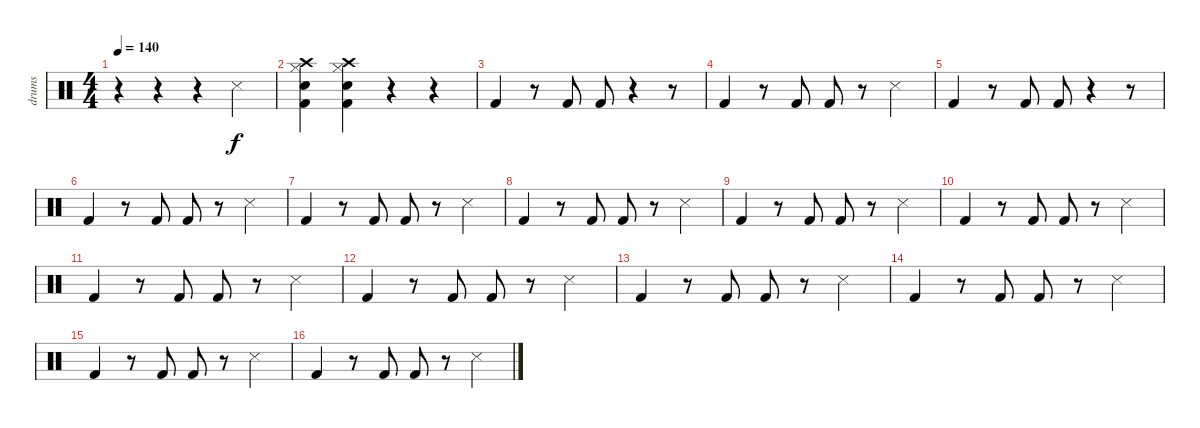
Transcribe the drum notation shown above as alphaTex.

\track ("drums" "drums") {instrument percussion}
\staff {score}
\articulation defaults
\ts (4 4)
\tempo 140
\clef neutral
\ks c
r.4{dy f} r.4 r.4 "Snare (side stick) 3".4 |
("Crash high (hit)" "Hi-Hat (closed)" "Snare (hit) 2" "Kick (hit) 2").4 ("Crash high (hit)" "Hi-Hat (closed)" "Snare (hit) 2" "Kick (hit) 2").4 r.4 r.4 |
"Kick (hit) 2".4 r.8 "Kick (hit) 2".8 "Kick (hit) 2".8 r.4 r.8 |
"Kick (hit) 2".4 r.8 "Kick (hit) 2".8 "Kick (hit) 2".8 r.8 "Snare (side stick) 3".4 |
"Kick (hit) 2".4 r.8 "Kick (hit) 2".8 "Kick (hit) 2".8 r.4 r.8 |
"Kick (hit) 2".4 r.8 "Kick (hit) 2".8 "Kick (hit) 2".8 r.8 "Snare (side stick) 3".4 |
"Kick (hit) 2".4 r.8 "Kick (hit) 2".8 "Kick (hit) 2".8 r.8 "Snare (side stick) 3".4 |
"Kick (hit) 2".4 r.8 "Kick (hit) 2".8 "Kick (hit) 2".8 r.8 "Snare (side stick) 3".4 |
"Kick (hit) 2".4 r.8 "Kick (hit) 2".8 "Kick (hit) 2".8 r.8 "Snare (side stick) 3".4 |
"Kick (hit) 2".4 r.8 "Kick (hit) 2".8 "Kick (hit) 2".8 r.8 "Snare (side stick) 3".4 |
"Kick (hit) 2".4 r.8 "Kick (hit) 2".8 "Kick (hit) 2".8 r.8 "Snare (side stick) 3".4 |
"Kick (hit) 2".4 r.8 "Kick (hit) 2".8 "Kick (hit) 2".8 r.8 "Snare (side stick) 3".4 |
"Kick (hit) 2".4 r.8 "Kick (hit) 2".8 "Kick (hit) 2".8 r.8 "Snare (side stick) 3".4 |
"Kick (hit) 2".4 r.8 "Kick (hit) 2".8 "Kick (hit) 2".8 r.8 "Snare (side stick) 3".4 |
"Kick (hit) 2".4 r.8 "Kick (hit) 2".8 "Kick (hit) 2".8 r.8 "Snare (side stick) 3".4 |
"Kick (hit) 2".4 r.8 "Kick (hit) 2".8 "Kick (hit) 2".8 r.8 "Snare (side stick) 3".4
